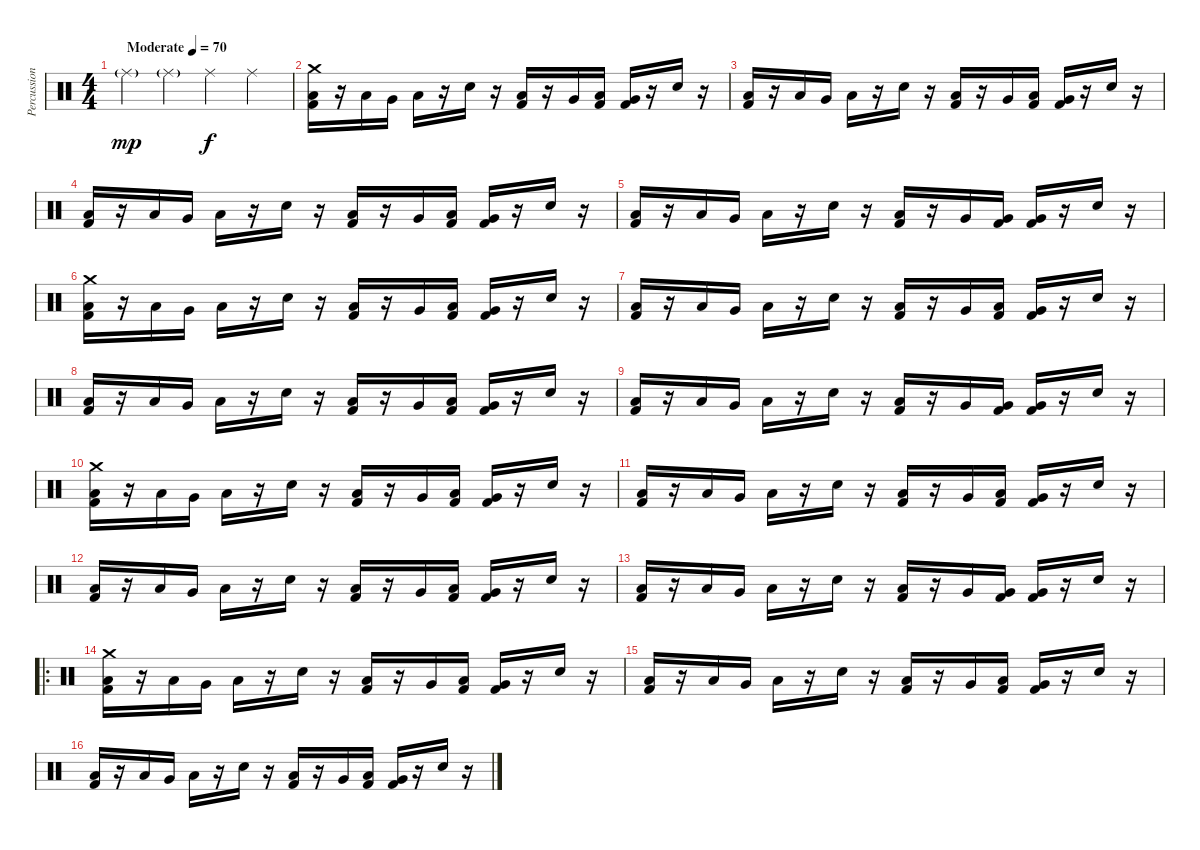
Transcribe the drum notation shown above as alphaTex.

\track ("Percussion" "Percussion") {instrument percussion}
\staff {score}
\articulation defaults
\ts (4 4)
\tempo (70 "Moderate")
\clef neutral
\ks c "Ride (middle)"{g}.4{dy mp} "Ride (middle)"{g}.4 "Ride (middle)".4{dy f} "Ride (middle)".4
|
("Crash medium (hit)" "Low Floor Tom (hit)" "Kick (hit) 2").16 r.16 "Low Floor Tom (hit)".16 "Very Low Tom (hit)".16 "Low Floor Tom (hit)".16 r.16 "Electric Snare (hit)".16 r.16 ("Low Floor Tom (hit)" "Kick (hit) 2").16 r.16 "Very Low Tom (hit)".16 ("Low Floor Tom (hit)" "Kick (hit) 2").16 ("Very Low Tom (hit)" "Kick (hit) 2").16 r.16 "Electric Snare (hit)".16 r.16 |
("Low Floor Tom (hit)" "Kick (hit) 2").16 r.16 "Low Floor Tom (hit)".16 "Very Low Tom (hit)".16 "Low Floor Tom (hit)".16 r.16 "Electric Snare (hit)".16 r.16 ("Low Floor Tom (hit)" "Kick (hit) 2").16 r.16 "Very Low Tom (hit)".16 ("Low Floor Tom (hit)" "Kick (hit) 2").16 ("Very Low Tom (hit)" "Kick (hit) 2").16 r.16 "Electric Snare (hit)".16 r.16 |
("Low Floor Tom (hit)" "Kick (hit) 2").16 r.16 "Low Floor Tom (hit)".16 "Very Low Tom (hit)".16 "Low Floor Tom (hit)".16 r.16 "Electric Snare (hit)".16 r.16 ("Low Floor Tom (hit)" "Kick (hit) 2").16 r.16 "Very Low Tom (hit)".16 ("Low Floor Tom (hit)" "Kick (hit) 2").16 ("Very Low Tom (hit)" "Kick (hit) 2").16 r.16 "Electric Snare (hit)".16 r.16 |
("Low Floor Tom (hit)" "Kick (hit) 2").16 r.16 "Low Floor Tom (hit)".16 "Very Low Tom (hit)".16 "Low Floor Tom (hit)".16 r.16 "Electric Snare (hit)".16 r.16 ("Low Floor Tom (hit)" "Kick (hit) 2").16 r.16 "Very Low Tom (hit)".16 ("Very Low Tom (hit)" "Kick (hit) 2").16 ("Very Low Tom (hit)" "Kick (hit) 2").16 r.16 "Electric Snare (hit)".16 r.16 |
("Crash medium (hit)" "Low Floor Tom (hit)" "Kick (hit) 2").16 r.16 "Low Floor Tom (hit)".16 "Very Low Tom (hit)".16 "Low Floor Tom (hit)".16 r.16 "Electric Snare (hit)".16 r.16 ("Low Floor Tom (hit)" "Kick (hit) 2").16 r.16 "Very Low Tom (hit)".16 ("Low Floor Tom (hit)" "Kick (hit) 2").16 ("Very Low Tom (hit)" "Kick (hit) 2").16 r.16 "Electric Snare (hit)".16 r.16 |
("Low Floor Tom (hit)" "Kick (hit) 2").16 r.16 "Low Floor Tom (hit)".16 "Very Low Tom (hit)".16 "Low Floor Tom (hit)".16 r.16 "Electric Snare (hit)".16 r.16 ("Low Floor Tom (hit)" "Kick (hit) 2").16 r.16 "Very Low Tom (hit)".16 ("Low Floor Tom (hit)" "Kick (hit) 2").16 ("Very Low Tom (hit)" "Kick (hit) 2").16 r.16 "Electric Snare (hit)".16 r.16 |
("Low Floor Tom (hit)" "Kick (hit) 2").16 r.16 "Low Floor Tom (hit)".16 "Very Low Tom (hit)".16 "Low Floor Tom (hit)".16 r.16 "Electric Snare (hit)".16 r.16 ("Low Floor Tom (hit)" "Kick (hit) 2").16 r.16 "Very Low Tom (hit)".16 ("Low Floor Tom (hit)" "Kick (hit) 2").16 ("Very Low Tom (hit)" "Kick (hit) 2").16 r.16 "Electric Snare (hit)".16 r.16 |
("Low Floor Tom (hit)" "Kick (hit) 2").16 r.16 "Low Floor Tom (hit)".16 "Very Low Tom (hit)".16 "Low Floor Tom (hit)".16 r.16 "Electric Snare (hit)".16 r.16 ("Low Floor Tom (hit)" "Kick (hit) 2").16 r.16 "Very Low Tom (hit)".16 ("Very Low Tom (hit)" "Kick (hit) 2").16 ("Very Low Tom (hit)" "Kick (hit) 2").16 r.16 "Electric Snare (hit)".16 r.16 |
("Crash medium (hit)" "Low Floor Tom (hit)" "Kick (hit) 2").16 r.16 "Low Floor Tom (hit)".16 "Very Low Tom (hit)".16 "Low Floor Tom (hit)".16 r.16 "Electric Snare (hit)".16 r.16 ("Low Floor Tom (hit)" "Kick (hit) 2").16 r.16 "Very Low Tom (hit)".16 ("Low Floor Tom (hit)" "Kick (hit) 2").16 ("Very Low Tom (hit)" "Kick (hit) 2").16 r.16 "Electric Snare (hit)".16 r.16 |
("Low Floor Tom (hit)" "Kick (hit) 2").16 r.16 "Low Floor Tom (hit)".16 "Very Low Tom (hit)".16 "Low Floor Tom (hit)".16 r.16 "Electric Snare (hit)".16 r.16 ("Low Floor Tom (hit)" "Kick (hit) 2").16 r.16 "Very Low Tom (hit)".16 ("Low Floor Tom (hit)" "Kick (hit) 2").16 ("Very Low Tom (hit)" "Kick (hit) 2").16 r.16 "Electric Snare (hit)".16 r.16 |
("Low Floor Tom (hit)" "Kick (hit) 2").16 r.16 "Low Floor Tom (hit)".16 "Very Low Tom (hit)".16 "Low Floor Tom (hit)".16 r.16 "Electric Snare (hit)".16 r.16 ("Low Floor Tom (hit)" "Kick (hit) 2").16 r.16 "Very Low Tom (hit)".16 ("Low Floor Tom (hit)" "Kick (hit) 2").16 ("Very Low Tom (hit)" "Kick (hit) 2").16 r.16 "Electric Snare (hit)".16 r.16 |
("Low Floor Tom (hit)" "Kick (hit) 2").16 r.16 "Low Floor Tom (hit)".16 "Very Low Tom (hit)".16 "Low Floor Tom (hit)".16 r.16 "Electric Snare (hit)".16 r.16 ("Low Floor Tom (hit)" "Kick (hit) 2").16 r.16 "Very Low Tom (hit)".16 ("Very Low Tom (hit)" "Kick (hit) 2").16 ("Very Low Tom (hit)" "Kick (hit) 2").16 r.16 "Electric Snare (hit)".16 r.16 |
\ro
("Crash medium (hit)" "Low Floor Tom (hit)" "Kick (hit) 2").16 r.16 "Low Floor Tom (hit)".16 "Very Low Tom (hit)".16 "Low Floor Tom (hit)".16 r.16 "Electric Snare (hit)".16 r.16 ("Low Floor Tom (hit)" "Kick (hit) 2").16 r.16 "Very Low Tom (hit)".16 ("Low Floor Tom (hit)" "Kick (hit) 2").16 ("Very Low Tom (hit)" "Kick (hit) 2").16 r.16 "Electric Snare (hit)".16 r.16 |
("Low Floor Tom (hit)" "Kick (hit) 2").16 r.16 "Low Floor Tom (hit)".16 "Very Low Tom (hit)".16 "Low Floor Tom (hit)".16 r.16 "Electric Snare (hit)".16 r.16 ("Low Floor Tom (hit)" "Kick (hit) 2").16 r.16 "Very Low Tom (hit)".16 ("Low Floor Tom (hit)" "Kick (hit) 2").16 ("Very Low Tom (hit)" "Kick (hit) 2").16 r.16 "Electric Snare (hit)".16 r.16 |
("Low Floor Tom (hit)" "Kick (hit) 2").16 r.16 "Low Floor Tom (hit)".16 "Very Low Tom (hit)".16 "Low Floor Tom (hit)".16 r.16 "Electric Snare (hit)".16 r.16 ("Low Floor Tom (hit)" "Kick (hit) 2").16 r.16 "Very Low Tom (hit)".16 ("Low Floor Tom (hit)" "Kick (hit) 2").16 ("Very Low Tom (hit)" "Kick (hit) 2").16 r.16 "Electric Snare (hit)".16 r.16
